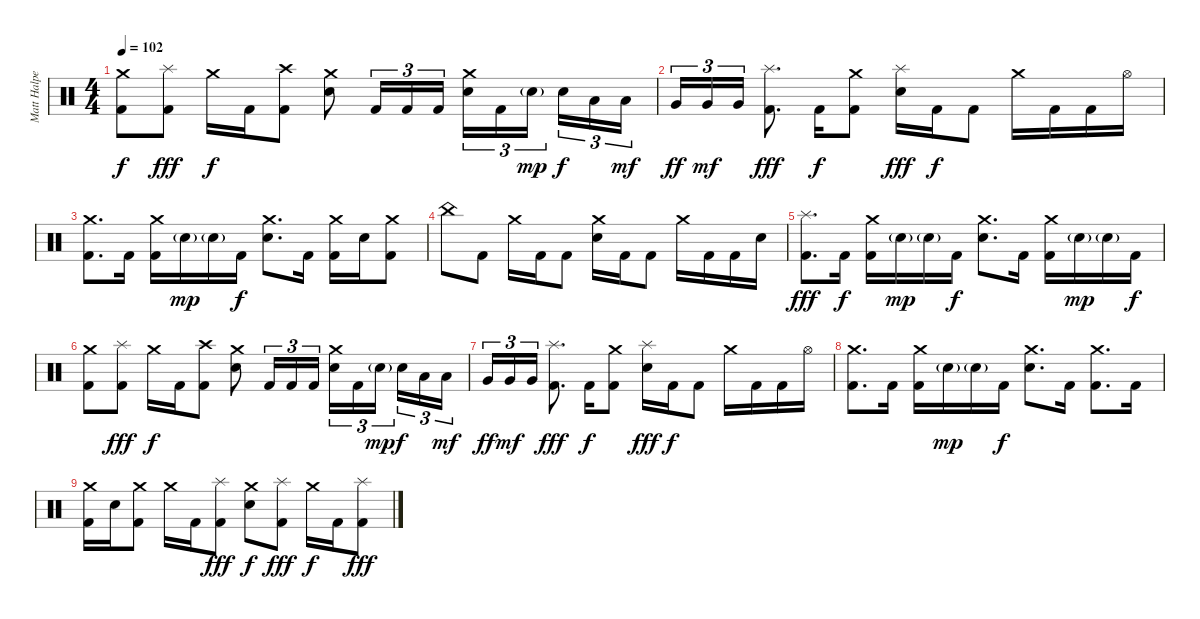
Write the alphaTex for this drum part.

\track ("Matt Halpern - Drums" "Matt Halpe") {instrument percussion}
\staff {score}
\articulation defaults
\ts (4 4)
\tempo 102
\clef neutral
\ks c
("Crash medium (hit)" "Kick (hit) 2").8{dy f} ("Splash (hit)" "Kick (hit) 2").8{dy fff} "Crash medium (hit)".16{dy f} "Kick (hit) 2".16 ("Crash high (hit)" "Kick (hit) 2").8 ("Crash medium (hit)" "Electric Snare (hit)").8 "Kick (hit) 2".16{tu (3 2)} "Kick (hit) 2".16{tu (3 2)} "Kick (hit) 2".16{tu (3 2)} ("Crash medium (hit)" "Electric Snare (hit)").16{tu (3 2)} "Kick (hit) 2".16{tu (3 2)} "Electric Snare (hit)"{g}.16{tu (3 2) dy mp beam splitsecondary} "Electric Snare (hit)".16{tu (3 2) dy f} "Low Tom (hit)".16{tu (3 2)} "Low Tom (hit)".16{tu (3 2) dy mf} |
"Very Low Tom (hit)".16{tu (3 2) dy ff volume 4} "Very Low Tom (hit)".16{tu (3 2) dy mf} "Very Low Tom (hit)".16{tu (3 2)} ("Splash (hit)" "Kick (hit) 2").8{d dy fff} "Kick (hit) 2".16{dy f} ("Crash medium (hit)" "Kick (hit) 2").8 ("Splash (hit)" "Electric Snare (hit)").16{dy fff} "Kick (hit) 2".16{dy f} "Kick (hit) 2".8 "Crash medium (hit)".16 "Kick (hit) 2".16 "Kick (hit) 2".16 "Hi-Hat (open)".16 |
("Crash medium (hit)" "Kick (hit) 2").8{d} "Kick (hit) 2".16 ("Crash medium (hit)" "Kick (hit) 2").16 "Electric Snare (hit)"{g}.16{dy mp} "Electric Snare (hit)"{g}.16 "Kick (hit) 2".16{dy f} ("Crash medium (hit)" "Electric Snare (hit)").8{d} "Kick (hit) 2".16 ("Crash medium (hit)" "Kick (hit) 2").16 "Electric Snare (hit)".16 ("Crash medium (hit)" "Kick (hit) 2").8 |
"China (hit)".8 "Kick (hit) 2".8 "Crash medium (hit)".16 "Kick (hit) 2".16 "Kick (hit) 2".8 ("Crash medium (hit)" "Electric Snare (hit)").16 "Kick (hit) 2".16 "Kick (hit) 2".8 "Crash medium (hit)".16 "Kick (hit) 2".16 "Kick (hit) 2".16 "Electric Snare (hit)".16 |
("Splash (hit)" "Kick (hit) 2").8{d dy fff} "Kick (hit) 2".16{dy f} ("Crash medium (hit)" "Kick (hit) 2").16 "Electric Snare (hit)"{g}.16{dy mp} "Electric Snare (hit)"{g}.16 "Kick (hit) 2".16{dy f} ("Crash medium (hit)" "Electric Snare (hit)").8{d} "Kick (hit) 2".16 ("Crash medium (hit)" "Kick (hit) 2").16 "Electric Snare (hit)"{g}.16{dy mp} "Electric Snare (hit)"{g}.16 "Kick (hit) 2".16{dy f} |
("Crash medium (hit)" "Kick (hit) 2").8{volume 0} ("Splash (hit)" "Kick (hit) 2").8{dy fff} "Crash medium (hit)".16{dy f} "Kick (hit) 2".16 ("Crash high (hit)" "Kick (hit) 2").8 ("Crash medium (hit)" "Electric Snare (hit)").8 "Kick (hit) 2".16{tu (3 2)} "Kick (hit) 2".16{tu (3 2)} "Kick (hit) 2".16{tu (3 2)} ("Crash medium (hit)" "Electric Snare (hit)").16{tu (3 2)} "Kick (hit) 2".16{tu (3 2)} "Electric Snare (hit)"{g}.16{tu (3 2) dy mp beam splitsecondary} "Electric Snare (hit)".16{tu (3 2) dy f} "Low Tom (hit)".16{tu (3 2)} "Low Tom (hit)".16{tu (3 2) dy mf} |
"Very Low Tom (hit)".16{tu (3 2) dy ff} "Very Low Tom (hit)".16{tu (3 2) dy mf} "Very Low Tom (hit)".16{tu (3 2)} ("Splash (hit)" "Kick (hit) 2").8{d dy fff} "Kick (hit) 2".16{dy f} ("Crash medium (hit)" "Kick (hit) 2").8 ("Splash (hit)" "Electric Snare (hit)").16{dy fff} "Kick (hit) 2".16{dy f} "Kick (hit) 2".8 "Crash medium (hit)".16 "Kick (hit) 2".16 "Kick (hit) 2".16 "Hi-Hat (open)".16 |
("Crash medium (hit)" "Kick (hit) 2").8{d} "Kick (hit) 2".16 ("Crash medium (hit)" "Kick (hit) 2").16 "Electric Snare (hit)"{g}.16{dy mp} "Electric Snare (hit)"{g}.16 "Kick (hit) 2".16{dy f} ("Crash medium (hit)" "Electric Snare (hit)").8{d} "Kick (hit) 2".16 ("Crash medium (hit)" "Kick (hit) 2").8{d} "Kick (hit) 2".16 |
("Crash medium (hit)" "Kick (hit) 2").16 "Electric Snare (hit)".16 ("Crash medium (hit)" "Kick (hit) 2").8 "Crash medium (hit)".16 "Kick (hit) 2".16 ("Splash (hit)" "Kick (hit) 2").8{dy fff} ("Crash medium (hit)" "Electric Snare (hit)").8{dy f} ("Splash (hit)" "Kick (hit) 2").8{dy fff} "Crash medium (hit)".16{dy f} "Kick (hit) 2".16 ("Splash (hit)" "Kick (hit) 2").8{dy fff}
